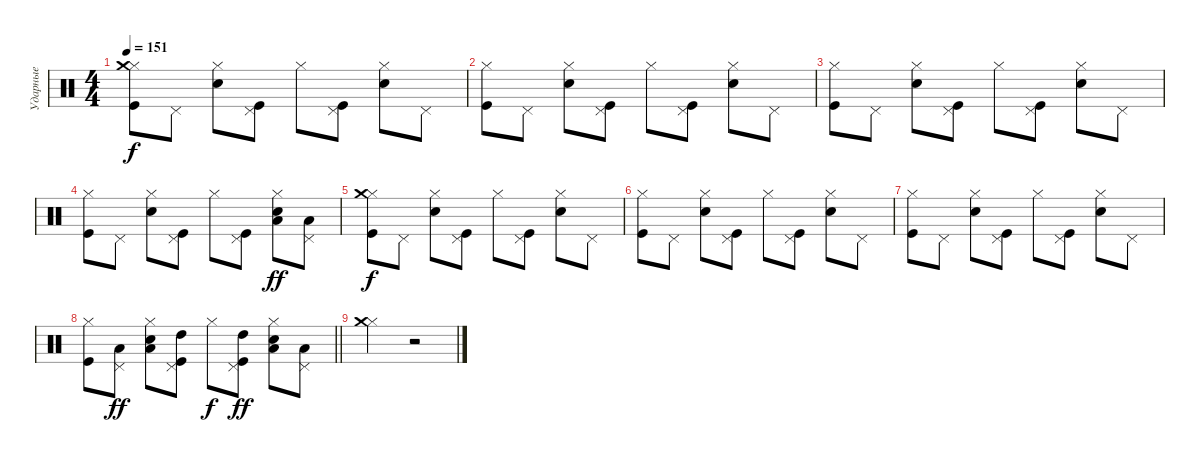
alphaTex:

\track ("Ударные" "Ударные") {instrument percussion}
\staff {score}
\articulation defaults
\ts (4 4)
\tempo 151
\clef neutral
\ks c
("Hi-Hat (closed)" "Kick (hit)" "Crash medium (hit)").8{dy f} "Pedal Hi-Hat (hit)".8 ("Hi-Hat (closed)" "Snare (hit) 2").8 ("Pedal Hi-Hat (hit)" "Kick (hit)").8 "Hi-Hat (closed)".8 ("Pedal Hi-Hat (hit)" "Kick (hit)").8 ("Hi-Hat (closed)" "Snare (hit) 2").8 "Pedal Hi-Hat (hit)".8 |
("Hi-Hat (closed)" "Kick (hit)").8 "Pedal Hi-Hat (hit)".8 ("Hi-Hat (closed)" "Snare (hit) 2").8 ("Pedal Hi-Hat (hit)" "Kick (hit)").8 "Hi-Hat (closed)".8 ("Pedal Hi-Hat (hit)" "Kick (hit)").8 ("Hi-Hat (closed)" "Snare (hit) 2").8 "Pedal Hi-Hat (hit)".8 |
("Hi-Hat (closed)" "Kick (hit)").8 "Pedal Hi-Hat (hit)".8 ("Hi-Hat (closed)" "Snare (hit) 2").8 ("Pedal Hi-Hat (hit)" "Kick (hit)").8 "Hi-Hat (closed)".8 ("Pedal Hi-Hat (hit)" "Kick (hit)").8 ("Hi-Hat (closed)" "Snare (hit) 2").8 "Pedal Hi-Hat (hit)".8 |
("Hi-Hat (closed)" "Kick (hit)").8 "Pedal Hi-Hat (hit)".8 ("Hi-Hat (closed)" "Snare (hit) 2").8 ("Pedal Hi-Hat (hit)" "Kick (hit)").8 "Hi-Hat (closed)".8 ("Pedal Hi-Hat (hit)" "Kick (hit)").8 ("Hi-Hat (closed)" "Snare (hit) 2" "Low Tom (hit)").8{dy ff} ("Pedal Hi-Hat (hit)" "Low Tom (hit)").8 |
("Hi-Hat (closed)" "Kick (hit)" "Crash medium (hit)").8{dy f} "Pedal Hi-Hat (hit)".8 ("Hi-Hat (closed)" "Snare (hit) 2").8 ("Pedal Hi-Hat (hit)" "Kick (hit)").8 "Hi-Hat (closed)".8 ("Pedal Hi-Hat (hit)" "Kick (hit)").8 ("Hi-Hat (closed)" "Snare (hit) 2").8 "Pedal Hi-Hat (hit)".8 |
("Hi-Hat (closed)" "Kick (hit)").8 "Pedal Hi-Hat (hit)".8 ("Hi-Hat (closed)" "Snare (hit) 2").8 ("Pedal Hi-Hat (hit)" "Kick (hit)").8 "Hi-Hat (closed)".8 ("Pedal Hi-Hat (hit)" "Kick (hit)").8 ("Hi-Hat (closed)" "Snare (hit) 2").8 "Pedal Hi-Hat (hit)".8 |
("Hi-Hat (closed)" "Kick (hit)").8 "Pedal Hi-Hat (hit)".8 ("Hi-Hat (closed)" "Snare (hit) 2").8 ("Pedal Hi-Hat (hit)" "Kick (hit)").8 "Hi-Hat (closed)".8 ("Pedal Hi-Hat (hit)" "Kick (hit)").8 ("Hi-Hat (closed)" "Snare (hit) 2").8 "Pedal Hi-Hat (hit)".8 |
\barLineRight lightlight
("Hi-Hat (closed)" "Kick (hit)").8 ("Pedal Hi-Hat (hit)" "Low Floor Tom (hit)").8{dy ff} ("Hi-Hat (closed)" "Snare (hit) 2" "Low Tom (hit)").8 ("Pedal Hi-Hat (hit)" "Kick (hit)" "High Tom (hit)").8 "Hi-Hat (closed)".8{dy f} ("Pedal Hi-Hat (hit)" "Kick (hit)" "High Tom (hit)").8{dy ff} ("Hi-Hat (closed)" "Snare (hit) 2" "Low Tom (hit)").8 ("Pedal Hi-Hat (hit)" "Low Floor Tom (hit)").8 |
("Hi-Hat (closed)" "Crash medium (hit)").2 r.2
